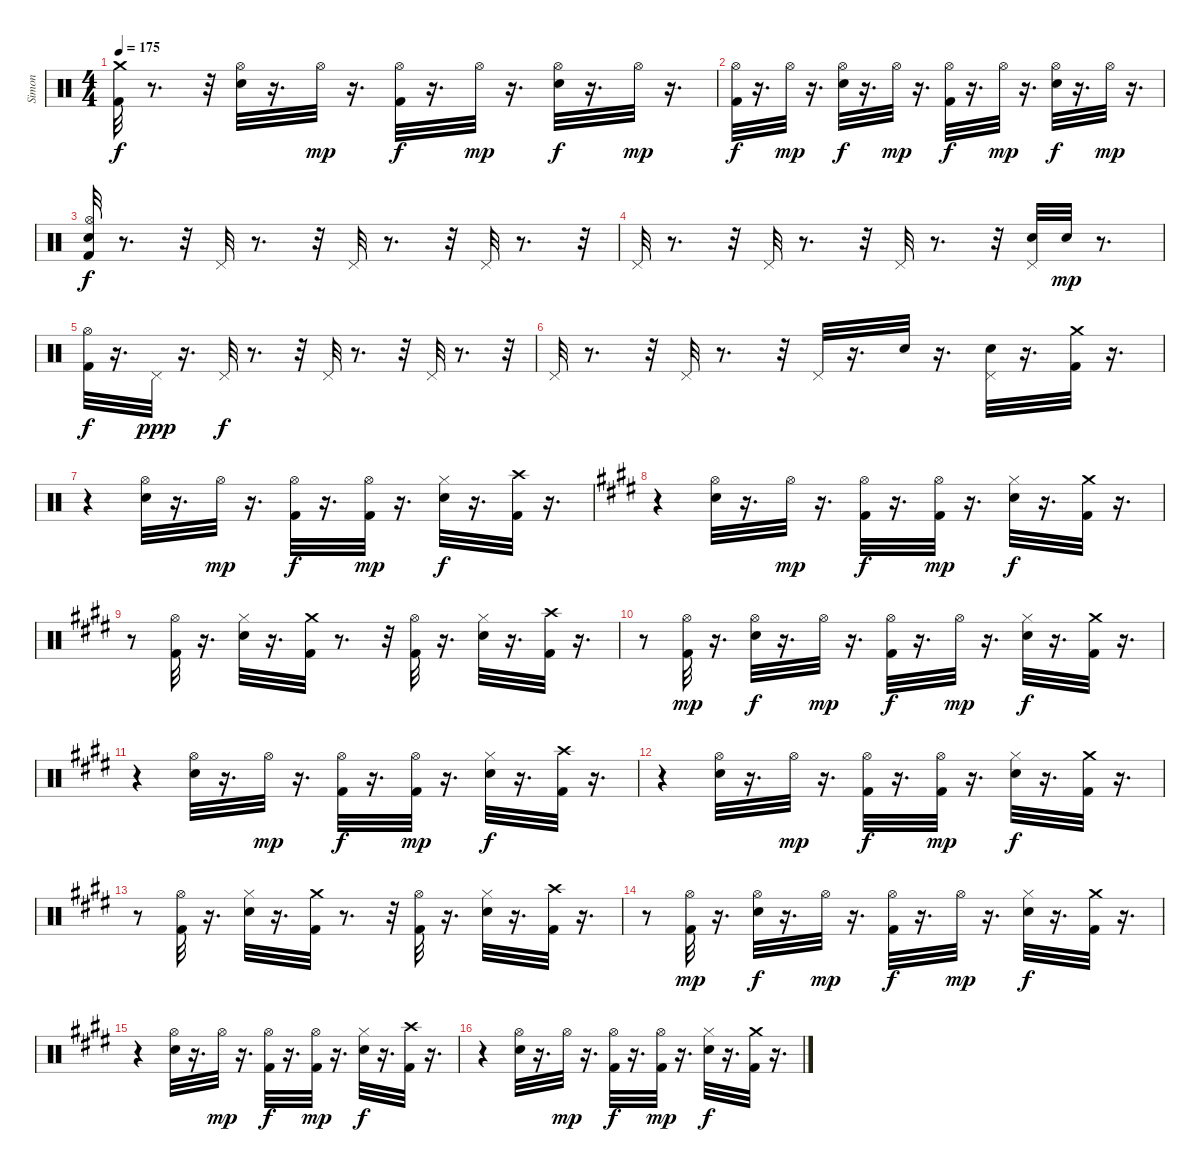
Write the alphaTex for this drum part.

\track ("Simon" "Simon") {instrument percussion}
\staff {score}
\articulation defaults
\ts (4 4)
\tempo 175
\clef neutral
\ks c
("Crash medium (hit)" "Kick (hit) 2").32{dy f} r.8{d} r.32 ("Hi-Hat (open)" "Electric Snare (hit)").32 r.16{d} "Hi-Hat (open)".32{dy mp} r.16{d} ("Hi-Hat (open)" "Kick (hit) 2").32{dy f} r.16{d} "Hi-Hat (open)".32{dy mp} r.16{d} ("Hi-Hat (open)" "Electric Snare (hit)").32{dy f} r.16{d} "Hi-Hat (open)".32{dy mp} r.16{d} |
("Hi-Hat (open)" "Kick (hit) 2").32{dy f} r.16{d} "Hi-Hat (open)".32{dy mp} r.16{d} ("Hi-Hat (open)" "Electric Snare (hit)").32{dy f} r.16{d} "Hi-Hat (open)".32{dy mp} r.16{d} ("Hi-Hat (open)" "Kick (hit) 2").32{dy f} r.16{d} "Hi-Hat (open)".32{dy mp} r.16{d} ("Hi-Hat (open)" "Electric Snare (hit)").32{dy f} r.16{d} "Hi-Hat (open)".32{dy mp} r.16{d} |
("Electric Snare (hit)" "Hi-Hat (open)" "Kick (hit) 2").32{dy f} r.8{d} r.32 "Pedal Hi-Hat (hit)".32 r.8{d} r.32 "Pedal Hi-Hat (hit)".32 r.8{d} r.32 "Pedal Hi-Hat (hit)".32 r.8{d} r.32 |
"Pedal Hi-Hat (hit)".32 r.8{d} r.32 "Pedal Hi-Hat (hit)".32 r.8{d} r.32 "Pedal Hi-Hat (hit)".32 r.8{d} r.32 ("Electric Snare (hit)" "Pedal Hi-Hat (hit)").32 "Snare (hit) 2".32{dy mp} r.8{d} |
("Hi-Hat (open)" "Kick (hit) 2").32{dy f} r.16{d} "Pedal Hi-Hat (hit)".32{dy ppp} r.16{d} "Pedal Hi-Hat (hit)".32{dy f} r.8{d} r.32 "Pedal Hi-Hat (hit)".32 r.8{d} r.32 "Pedal Hi-Hat (hit)".32 r.8{d} r.32 |
"Pedal Hi-Hat (hit)".32 r.8{d} r.32 "Pedal Hi-Hat (hit)".32 r.8{d} r.32 "Pedal Hi-Hat (hit)".32 r.16{d} "Electric Snare (hit)".32 r.16{d} ("Electric Snare (hit)" "Pedal Hi-Hat (hit)").32 r.16{d} ("Crash medium (hit)" "Kick (hit) 2").32 r.16{d} |
r.4 ("Electric Snare (hit)" "Hi-Hat (open)").32 r.16{d} "Hi-Hat (open)".32{dy mp} r.16{d} ("Hi-Hat (open)" "Kick (hit) 2").32{dy f} r.16{d} ("Kick (hit) 2" "Hi-Hat (open)").32{dy mp} r.16{d} ("Hi-Hat (closed)" "Electric Snare (hit)").32{dy f} r.16{d} ("Crash high (hit)" "Kick (hit) 2").32 r.16{d} |
\ks c#minor
r.4 ("Hi-Hat (open)" "Electric Snare (hit)").32 r.16{d} "Hi-Hat (open)".32{dy mp} r.16{d} ("Hi-Hat (open)" "Kick (hit) 2").32{dy f} r.16{d} ("Hi-Hat (open)" "Kick (hit) 2").32{dy mp} r.16{d} ("Electric Snare (hit)" "Hi-Hat (closed)").32{dy f} r.16{d} ("Crash medium (hit)" "Kick (hit) 2").32 r.16{d} |
\ks e
r.8 ("Kick (hit) 2" "Hi-Hat (open)").32 r.16{d} ("Hi-Hat (closed)" "Electric Snare (hit)").32 r.16{d} ("Crash medium (hit)" "Kick (hit) 2").32 r.8{d} r.32 ("Kick (hit) 2" "Hi-Hat (open)").32 r.16{d} ("Hi-Hat (closed)" "Electric Snare (hit)").32 r.16{d} ("Crash high (hit)" "Kick (hit) 2").32 r.16{d} |
\ks c#minor
r.8 ("Hi-Hat (open)" "Kick (hit) 2").32{dy mp} r.16{d} ("Hi-Hat (open)" "Electric Snare (hit)").32{dy f} r.16{d} "Hi-Hat (open)".32{dy mp} r.16{d} ("Hi-Hat (open)" "Kick (hit) 2").32{dy f} r.16{d} "Hi-Hat (open)".32{dy mp} r.16{d} ("Hi-Hat (closed)" "Electric Snare (hit)").32{dy f} r.16{d} ("Crash medium (hit)" "Kick (hit) 2").32 r.16{d} |
\ks e
r.4 ("Electric Snare (hit)" "Hi-Hat (open)").32 r.16{d} "Hi-Hat (open)".32{dy mp} r.16{d} ("Hi-Hat (open)" "Kick (hit) 2").32{dy f} r.16{d} ("Kick (hit) 2" "Hi-Hat (open)").32{dy mp} r.16{d} ("Hi-Hat (closed)" "Electric Snare (hit)").32{dy f} r.16{d} ("Crash high (hit)" "Kick (hit) 2").32 r.16{d} |
\ks c#minor
r.4 ("Hi-Hat (open)" "Electric Snare (hit)").32 r.16{d} "Hi-Hat (open)".32{dy mp} r.16{d} ("Hi-Hat (open)" "Kick (hit) 2").32{dy f} r.16{d} ("Hi-Hat (open)" "Kick (hit) 2").32{dy mp} r.16{d} ("Electric Snare (hit)" "Hi-Hat (closed)").32{dy f} r.16{d} ("Crash medium (hit)" "Kick (hit) 2").32 r.16{d} |
\ks e
r.8 ("Kick (hit) 2" "Hi-Hat (open)").32 r.16{d} ("Hi-Hat (closed)" "Electric Snare (hit)").32 r.16{d} ("Crash medium (hit)" "Kick (hit) 2").32 r.8{d} r.32 ("Kick (hit) 2" "Hi-Hat (open)").32 r.16{d} ("Hi-Hat (closed)" "Electric Snare (hit)").32 r.16{d} ("Crash high (hit)" "Kick (hit) 2").32 r.16{d} |
\ks c#minor
r.8 ("Hi-Hat (open)" "Kick (hit) 2").32{dy mp} r.16{d} ("Hi-Hat (open)" "Electric Snare (hit)").32{dy f} r.16{d} "Hi-Hat (open)".32{dy mp} r.16{d} ("Hi-Hat (open)" "Kick (hit) 2").32{dy f} r.16{d} "Hi-Hat (open)".32{dy mp} r.16{d} ("Hi-Hat (closed)" "Electric Snare (hit)").32{dy f} r.16{d} ("Crash medium (hit)" "Kick (hit) 2").32 r.16{d} |
r.4 ("Electric Snare (hit)" "Hi-Hat (open)").32 r.16{d} "Hi-Hat (open)".32{dy mp} r.16{d} ("Hi-Hat (open)" "Kick (hit) 2").32{dy f} r.16{d} ("Kick (hit) 2" "Hi-Hat (open)").32{dy mp} r.16{d} ("Hi-Hat (closed)" "Electric Snare (hit)").32{dy f} r.16{d} ("Crash high (hit)" "Kick (hit) 2").32 r.16{d} |
\ks e
r.4 ("Hi-Hat (open)" "Electric Snare (hit)").32 r.16{d} "Hi-Hat (open)".32{dy mp} r.16{d} ("Hi-Hat (open)" "Kick (hit) 2").32{dy f} r.16{d} ("Hi-Hat (open)" "Kick (hit) 2").32{dy mp} r.16{d} ("Electric Snare (hit)" "Hi-Hat (closed)").32{dy f} r.16{d} ("Crash medium (hit)" "Kick (hit) 2").32 r.16{d}
